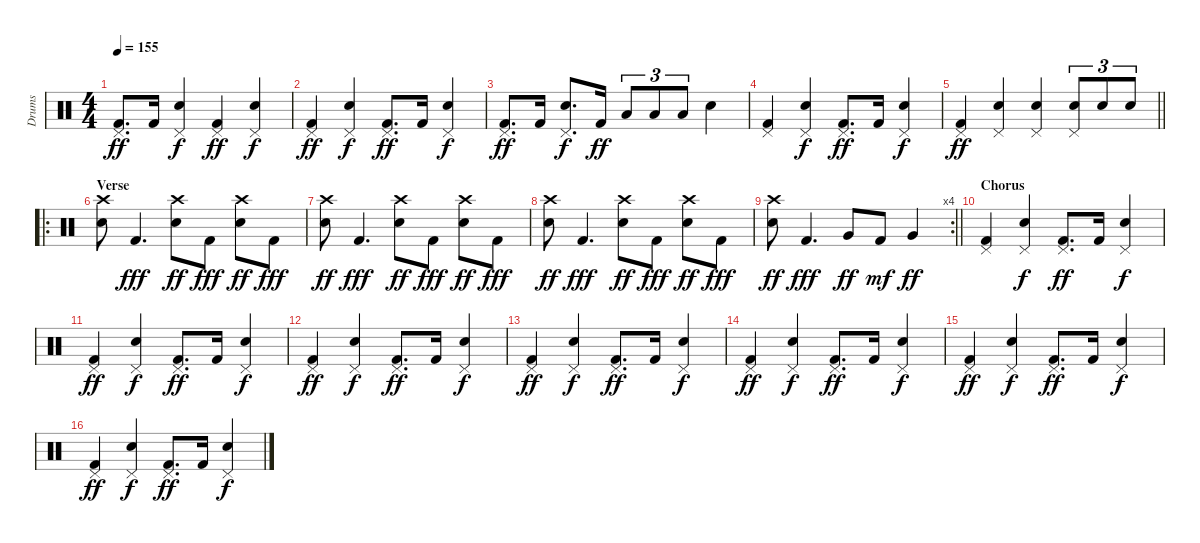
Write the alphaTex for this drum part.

\track ("Drums" "Drums") {instrument percussion}
\staff {score}
\articulation defaults
\ts (4 4)
\tempo 155
\clef neutral
\ks c
("Pedal Hi-Hat (hit)" "Kick (hit) 2").8{d dy ff} "Kick (hit) 2".16 ("Pedal Hi-Hat (hit)" "Electric Snare (hit)").4{dy f} ("Pedal Hi-Hat (hit)" "Kick (hit) 2").4{dy ff} ("Pedal Hi-Hat (hit)" "Electric Snare (hit)").4{dy f} |
("Pedal Hi-Hat (hit)" "Kick (hit) 2").4{dy ff} ("Pedal Hi-Hat (hit)" "Electric Snare (hit)").4{dy f} ("Pedal Hi-Hat (hit)" "Kick (hit) 2").8{d dy ff} "Kick (hit) 2".16 ("Pedal Hi-Hat (hit)" "Electric Snare (hit)").4{dy f} |
("Pedal Hi-Hat (hit)" "Kick (hit) 2").8{d dy ff} "Kick (hit) 2".16 ("Pedal Hi-Hat (hit)" "Electric Snare (hit)").8{d dy f} "Kick (hit) 2".16{dy ff} "Low Floor Tom (hit)".8{tu (3 2)} "Low Floor Tom (hit)".8{tu (3 2)} "Low Floor Tom (hit)".8{tu (3 2)} "Electric Snare (hit)".4 |
("Pedal Hi-Hat (hit)" "Kick (hit) 2").4 ("Pedal Hi-Hat (hit)" "Electric Snare (hit)").4{dy f} ("Pedal Hi-Hat (hit)" "Kick (hit) 2").8{d dy ff} "Kick (hit) 2".16 ("Pedal Hi-Hat (hit)" "Electric Snare (hit)").4{dy f} |
\barLineRight lightlight
("Pedal Hi-Hat (hit)" "Kick (hit) 2").4{dy ff} ("Pedal Hi-Hat (hit)" "Electric Snare (hit)").4 ("Pedal Hi-Hat (hit)" "Electric Snare (hit)").4 ("Pedal Hi-Hat (hit)" "Electric Snare (hit)").8{tu (3 2)} "Electric Snare (hit)".8{tu (3 2)} "Electric Snare (hit)".8{tu (3 2)} |
\ro
\section ("" "Verse")
("Crash high (hit)" "Electric Snare (hit)").8 "Kick (hit) 2".4{d dy fff} ("Crash high (hit)" "Electric Snare (hit)").8{dy ff} "Kick (hit) 2".8{dy fff} ("Crash high (hit)" "Electric Snare (hit)").8{dy ff} "Kick (hit) 2".8{dy fff} |
("Crash high (hit)" "Electric Snare (hit)").8{dy ff} "Kick (hit) 2".4{d dy fff} ("Crash high (hit)" "Electric Snare (hit)").8{dy ff} "Kick (hit) 2".8{dy fff} ("Crash high (hit)" "Electric Snare (hit)").8{dy ff} "Kick (hit) 2".8{dy fff} |
("Crash high (hit)" "Electric Snare (hit)").8{dy ff} "Kick (hit) 2".4{d dy fff} ("Crash high (hit)" "Electric Snare (hit)").8{dy ff} "Kick (hit) 2".8{dy fff} ("Crash high (hit)" "Electric Snare (hit)").8{dy ff} "Kick (hit) 2".8{dy fff} |
\rc 4
\barLineRight lightlight
("Crash high (hit)" "Electric Snare (hit)").8{dy ff} "Kick (hit) 2".4{d dy fff} "Very Low Tom (hit)".8{dy ff} "Kick (hit) 2".8{dy mf} "Very Low Tom (hit)".4{dy ff} |
\section ("" "Chorus")
("Pedal Hi-Hat (hit)" "Kick (hit) 2").4 ("Pedal Hi-Hat (hit)" "Electric Snare (hit)").4{dy f} ("Pedal Hi-Hat (hit)" "Kick (hit) 2").8{d dy ff} "Kick (hit) 2".16 ("Pedal Hi-Hat (hit)" "Electric Snare (hit)").4{dy f} |
("Pedal Hi-Hat (hit)" "Kick (hit) 2").4{dy ff} ("Pedal Hi-Hat (hit)" "Electric Snare (hit)").4{dy f} ("Pedal Hi-Hat (hit)" "Kick (hit) 2").8{d dy ff} "Kick (hit) 2".16 ("Pedal Hi-Hat (hit)" "Electric Snare (hit)").4{dy f} |
("Pedal Hi-Hat (hit)" "Kick (hit) 2").4{dy ff} ("Pedal Hi-Hat (hit)" "Electric Snare (hit)").4{dy f} ("Pedal Hi-Hat (hit)" "Kick (hit) 2").8{d dy ff} "Kick (hit) 2".16 ("Pedal Hi-Hat (hit)" "Electric Snare (hit)").4{dy f} |
("Pedal Hi-Hat (hit)" "Kick (hit) 2").4{dy ff} ("Pedal Hi-Hat (hit)" "Electric Snare (hit)").4{dy f} ("Pedal Hi-Hat (hit)" "Kick (hit) 2").8{d dy ff} "Kick (hit) 2".16 ("Pedal Hi-Hat (hit)" "Electric Snare (hit)").4{dy f} |
("Pedal Hi-Hat (hit)" "Kick (hit) 2").4{dy ff} ("Pedal Hi-Hat (hit)" "Electric Snare (hit)").4{dy f} ("Pedal Hi-Hat (hit)" "Kick (hit) 2").8{d dy ff} "Kick (hit) 2".16 ("Pedal Hi-Hat (hit)" "Electric Snare (hit)").4{dy f} |
("Pedal Hi-Hat (hit)" "Kick (hit) 2").4{dy ff} ("Pedal Hi-Hat (hit)" "Electric Snare (hit)").4{dy f} ("Pedal Hi-Hat (hit)" "Kick (hit) 2").8{d dy ff} "Kick (hit) 2".16 ("Pedal Hi-Hat (hit)" "Electric Snare (hit)").4{dy f} |
("Pedal Hi-Hat (hit)" "Kick (hit) 2").4{dy ff} ("Pedal Hi-Hat (hit)" "Electric Snare (hit)").4{dy f} ("Pedal Hi-Hat (hit)" "Kick (hit) 2").8{d dy ff} "Kick (hit) 2".16 ("Pedal Hi-Hat (hit)" "Electric Snare (hit)").4{dy f}
